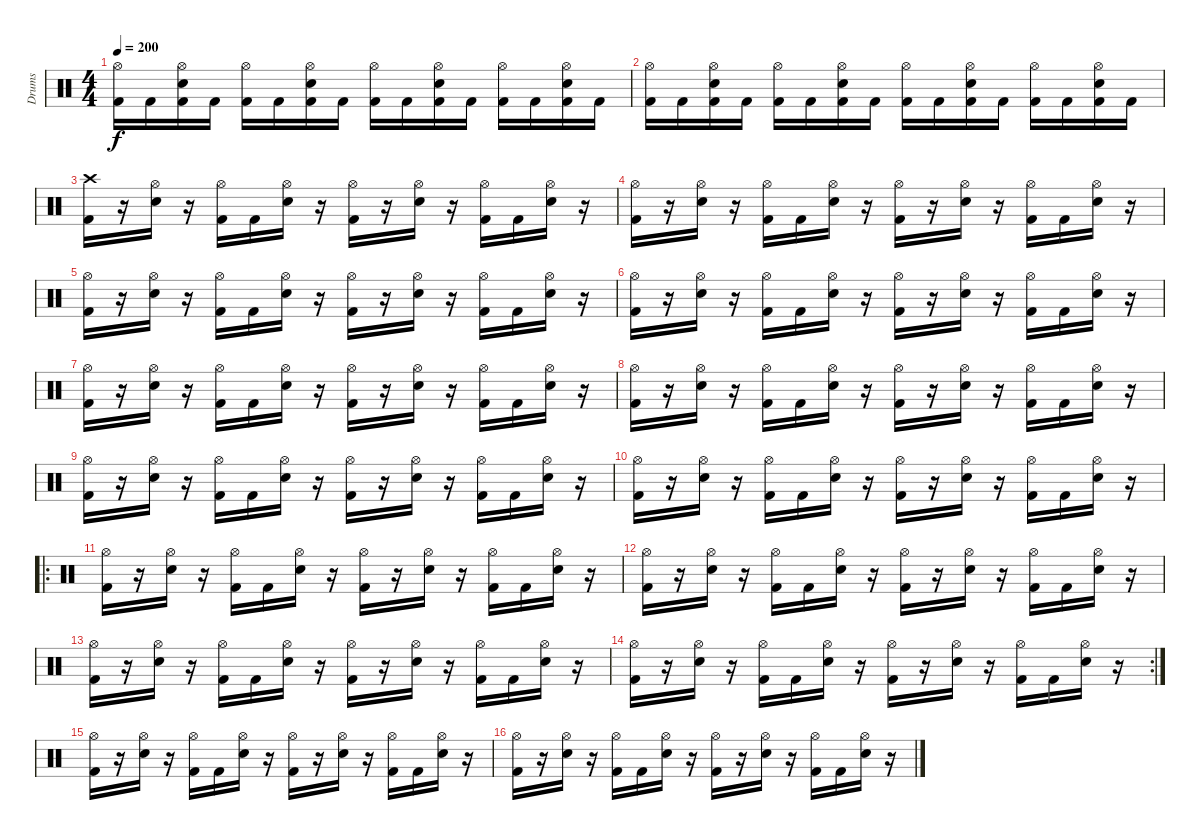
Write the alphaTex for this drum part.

\track ("Drums" "Drums") {instrument percussion}
\staff {score}
\articulation defaults
\ts (4 4)
\tempo 200
\clef neutral
\ks c
("Hi-Hat (open)" "Kick (hit) 2").16{dy f} "Kick (hit) 2".16 ("Hi-Hat (open)" "Electric Snare (hit)" "Kick (hit) 2").16 "Kick (hit) 2".16 ("Hi-Hat (open)" "Kick (hit) 2").16 "Kick (hit) 2".16 ("Hi-Hat (open)" "Electric Snare (hit)" "Kick (hit) 2").16 "Kick (hit) 2".16 ("Hi-Hat (open)" "Kick (hit) 2").16 "Kick (hit) 2".16 ("Hi-Hat (open)" "Electric Snare (hit)" "Kick (hit) 2").16 "Kick (hit) 2".16 ("Hi-Hat (open)" "Kick (hit) 2").16 "Kick (hit) 2".16 ("Hi-Hat (open)" "Electric Snare (hit)" "Kick (hit) 2").16 "Kick (hit) 2".16 |
("Hi-Hat (open)" "Kick (hit) 2").16 "Kick (hit) 2".16 ("Hi-Hat (open)" "Electric Snare (hit)" "Kick (hit) 2").16 "Kick (hit) 2".16 ("Hi-Hat (open)" "Kick (hit) 2").16 "Kick (hit) 2".16 ("Hi-Hat (open)" "Electric Snare (hit)" "Kick (hit) 2").16 "Kick (hit) 2".16 ("Hi-Hat (open)" "Kick (hit) 2").16 "Kick (hit) 2".16 ("Hi-Hat (open)" "Electric Snare (hit)" "Kick (hit) 2").16 "Kick (hit) 2".16 ("Hi-Hat (open)" "Kick (hit) 2").16 "Kick (hit) 2".16 ("Hi-Hat (open)" "Electric Snare (hit)" "Kick (hit) 2").16 "Kick (hit) 2".16 |
("Crash high (hit)" "Kick (hit) 2").16 r.16 ("Hi-Hat (open)" "Electric Snare (hit)").16 r.16 ("Hi-Hat (open)" "Kick (hit) 2").16 "Kick (hit) 2".16 ("Hi-Hat (open)" "Electric Snare (hit)").16 r.16 ("Hi-Hat (open)" "Kick (hit) 2").16 r.16 ("Hi-Hat (open)" "Electric Snare (hit)").16 r.16 ("Hi-Hat (open)" "Kick (hit) 2").16 "Kick (hit) 2".16 ("Hi-Hat (open)" "Electric Snare (hit)").16 r.16 |
("Hi-Hat (open)" "Kick (hit) 2").16 r.16 ("Hi-Hat (open)" "Electric Snare (hit)").16 r.16 ("Hi-Hat (open)" "Kick (hit) 2").16 "Kick (hit) 2".16 ("Hi-Hat (open)" "Electric Snare (hit)").16 r.16 ("Hi-Hat (open)" "Kick (hit) 2").16 r.16 ("Hi-Hat (open)" "Electric Snare (hit)").16 r.16 ("Hi-Hat (open)" "Kick (hit) 2").16 "Kick (hit) 2".16 ("Hi-Hat (open)" "Electric Snare (hit)").16 r.16 |
("Hi-Hat (open)" "Kick (hit) 2").16 r.16 ("Hi-Hat (open)" "Electric Snare (hit)").16 r.16 ("Hi-Hat (open)" "Kick (hit) 2").16 "Kick (hit) 2".16 ("Hi-Hat (open)" "Electric Snare (hit)").16 r.16 ("Hi-Hat (open)" "Kick (hit) 2").16 r.16 ("Hi-Hat (open)" "Electric Snare (hit)").16 r.16 ("Hi-Hat (open)" "Kick (hit) 2").16 "Kick (hit) 2".16 ("Hi-Hat (open)" "Electric Snare (hit)").16 r.16 |
("Hi-Hat (open)" "Kick (hit) 2").16 r.16 ("Hi-Hat (open)" "Electric Snare (hit)").16 r.16 ("Hi-Hat (open)" "Kick (hit) 2").16 "Kick (hit) 2".16 ("Hi-Hat (open)" "Electric Snare (hit)").16 r.16 ("Hi-Hat (open)" "Kick (hit) 2").16 r.16 ("Hi-Hat (open)" "Electric Snare (hit)").16 r.16 ("Hi-Hat (open)" "Kick (hit) 2").16 "Kick (hit) 2".16 ("Hi-Hat (open)" "Electric Snare (hit)").16 r.16 |
("Hi-Hat (open)" "Kick (hit) 2").16 r.16 ("Hi-Hat (open)" "Electric Snare (hit)").16 r.16 ("Hi-Hat (open)" "Kick (hit) 2").16 "Kick (hit) 2".16 ("Hi-Hat (open)" "Electric Snare (hit)").16 r.16 ("Hi-Hat (open)" "Kick (hit) 2").16 r.16 ("Hi-Hat (open)" "Electric Snare (hit)").16 r.16 ("Hi-Hat (open)" "Kick (hit) 2").16 "Kick (hit) 2".16 ("Hi-Hat (open)" "Electric Snare (hit)").16 r.16 |
("Hi-Hat (open)" "Kick (hit) 2").16 r.16 ("Hi-Hat (open)" "Electric Snare (hit)").16 r.16 ("Hi-Hat (open)" "Kick (hit) 2").16 "Kick (hit) 2".16 ("Hi-Hat (open)" "Electric Snare (hit)").16 r.16 ("Hi-Hat (open)" "Kick (hit) 2").16 r.16 ("Hi-Hat (open)" "Electric Snare (hit)").16 r.16 ("Hi-Hat (open)" "Kick (hit) 2").16 "Kick (hit) 2".16 ("Hi-Hat (open)" "Electric Snare (hit)").16 r.16 |
("Hi-Hat (open)" "Kick (hit) 2").16 r.16 ("Hi-Hat (open)" "Electric Snare (hit)").16 r.16 ("Hi-Hat (open)" "Kick (hit) 2").16 "Kick (hit) 2".16 ("Hi-Hat (open)" "Electric Snare (hit)").16 r.16 ("Hi-Hat (open)" "Kick (hit) 2").16 r.16 ("Hi-Hat (open)" "Electric Snare (hit)").16 r.16 ("Hi-Hat (open)" "Kick (hit) 2").16 "Kick (hit) 2".16 ("Hi-Hat (open)" "Electric Snare (hit)").16 r.16 |
("Hi-Hat (open)" "Kick (hit) 2").16 r.16 ("Hi-Hat (open)" "Electric Snare (hit)").16 r.16 ("Hi-Hat (open)" "Kick (hit) 2").16 "Kick (hit) 2".16 ("Hi-Hat (open)" "Electric Snare (hit)").16 r.16 ("Hi-Hat (open)" "Kick (hit) 2").16 r.16 ("Hi-Hat (open)" "Electric Snare (hit)").16 r.16 ("Hi-Hat (open)" "Kick (hit) 2").16 "Kick (hit) 2".16 ("Hi-Hat (open)" "Electric Snare (hit)").16 r.16 |
\ro
("Hi-Hat (open)" "Kick (hit) 2").16 r.16 ("Hi-Hat (open)" "Electric Snare (hit)").16 r.16 ("Hi-Hat (open)" "Kick (hit) 2").16 "Kick (hit) 2".16 ("Hi-Hat (open)" "Electric Snare (hit)").16 r.16 ("Hi-Hat (open)" "Kick (hit) 2").16 r.16 ("Hi-Hat (open)" "Electric Snare (hit)").16 r.16 ("Hi-Hat (open)" "Kick (hit) 2").16 "Kick (hit) 2".16 ("Hi-Hat (open)" "Electric Snare (hit)").16 r.16 |
("Hi-Hat (open)" "Kick (hit) 2").16 r.16 ("Hi-Hat (open)" "Electric Snare (hit)").16 r.16 ("Hi-Hat (open)" "Kick (hit) 2").16 "Kick (hit) 2".16 ("Hi-Hat (open)" "Electric Snare (hit)").16 r.16 ("Hi-Hat (open)" "Kick (hit) 2").16 r.16 ("Hi-Hat (open)" "Electric Snare (hit)").16 r.16 ("Hi-Hat (open)" "Kick (hit) 2").16 "Kick (hit) 2".16 ("Hi-Hat (open)" "Electric Snare (hit)").16 r.16 |
("Hi-Hat (open)" "Kick (hit) 2").16 r.16 ("Hi-Hat (open)" "Electric Snare (hit)").16 r.16 ("Hi-Hat (open)" "Kick (hit) 2").16 "Kick (hit) 2".16 ("Hi-Hat (open)" "Electric Snare (hit)").16 r.16 ("Hi-Hat (open)" "Kick (hit) 2").16 r.16 ("Hi-Hat (open)" "Electric Snare (hit)").16 r.16 ("Hi-Hat (open)" "Kick (hit) 2").16 "Kick (hit) 2".16 ("Hi-Hat (open)" "Electric Snare (hit)").16 r.16 |
\rc 2
("Hi-Hat (open)" "Kick (hit) 2").16 r.16 ("Hi-Hat (open)" "Electric Snare (hit)").16 r.16 ("Hi-Hat (open)" "Kick (hit) 2").16 "Kick (hit) 2".16 ("Hi-Hat (open)" "Electric Snare (hit)").16 r.16 ("Hi-Hat (open)" "Kick (hit) 2").16 r.16 ("Hi-Hat (open)" "Electric Snare (hit)").16 r.16 ("Hi-Hat (open)" "Kick (hit) 2").16 "Kick (hit) 2".16 ("Hi-Hat (open)" "Electric Snare (hit)").16 r.16 |
("Hi-Hat (open)" "Kick (hit) 2").16 r.16 ("Hi-Hat (open)" "Electric Snare (hit)").16 r.16 ("Hi-Hat (open)" "Kick (hit) 2").16 "Kick (hit) 2".16 ("Hi-Hat (open)" "Electric Snare (hit)").16 r.16 ("Hi-Hat (open)" "Kick (hit) 2").16 r.16 ("Hi-Hat (open)" "Electric Snare (hit)").16 r.16 ("Hi-Hat (open)" "Kick (hit) 2").16 "Kick (hit) 2".16 ("Hi-Hat (open)" "Electric Snare (hit)").16 r.16 |
("Hi-Hat (open)" "Kick (hit) 2").16 r.16 ("Hi-Hat (open)" "Electric Snare (hit)").16 r.16 ("Hi-Hat (open)" "Kick (hit) 2").16 "Kick (hit) 2".16 ("Hi-Hat (open)" "Electric Snare (hit)").16 r.16 ("Hi-Hat (open)" "Kick (hit) 2").16 r.16 ("Hi-Hat (open)" "Electric Snare (hit)").16 r.16 ("Hi-Hat (open)" "Kick (hit) 2").16 "Kick (hit) 2".16 ("Hi-Hat (open)" "Electric Snare (hit)").16 r.16
